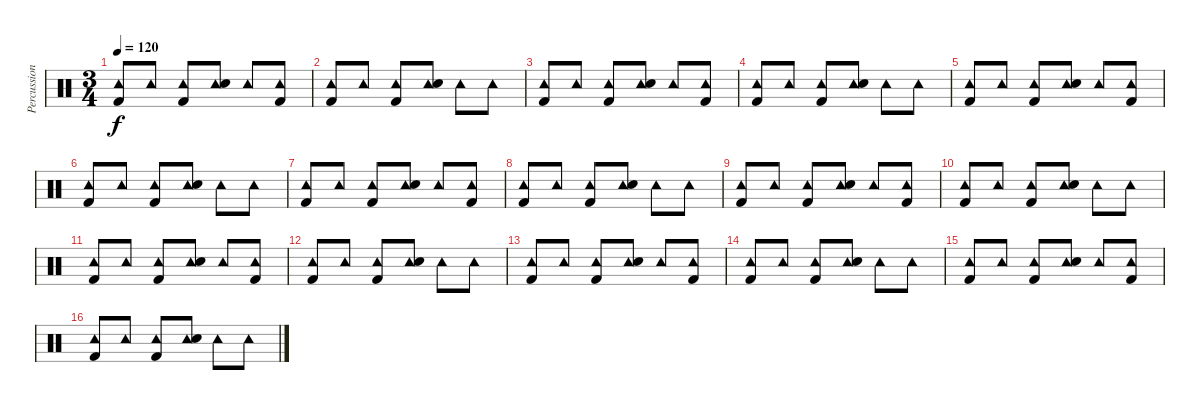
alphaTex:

\track ("Percussions" "Percussion") {instrument percussion}
\staff {score}
\articulation defaults
\ts (3 4)
\tempo 120
\clef neutral
\ks c
("Tambourine (hit)" "Kick (hit) 2").8{dy f} "Tambourine (hit)".8 ("Tambourine (hit)" "Kick (hit) 2").8 ("Tambourine (hit)" "Electric Snare (hit)").8 "Tambourine (hit)".8 ("Tambourine (hit)" "Kick (hit) 2").8 |
("Tambourine (hit)" "Kick (hit) 2").8 "Tambourine (hit)".8 ("Tambourine (hit)" "Kick (hit) 2").8 ("Tambourine (hit)" "Electric Snare (hit)").8 "Tambourine (hit)".8 "Tambourine (hit)".8 |
("Tambourine (hit)" "Kick (hit) 2").8 "Tambourine (hit)".8 ("Tambourine (hit)" "Kick (hit) 2").8 ("Tambourine (hit)" "Electric Snare (hit)").8 "Tambourine (hit)".8 ("Tambourine (hit)" "Kick (hit) 2").8 |
("Tambourine (hit)" "Kick (hit) 2").8 "Tambourine (hit)".8 ("Tambourine (hit)" "Kick (hit) 2").8 ("Tambourine (hit)" "Electric Snare (hit)").8 "Tambourine (hit)".8 "Tambourine (hit)".8 |
("Tambourine (hit)" "Kick (hit) 2").8 "Tambourine (hit)".8 ("Tambourine (hit)" "Kick (hit) 2").8 ("Tambourine (hit)" "Electric Snare (hit)").8 "Tambourine (hit)".8 ("Tambourine (hit)" "Kick (hit) 2").8 |
("Tambourine (hit)" "Kick (hit) 2").8 "Tambourine (hit)".8 ("Tambourine (hit)" "Kick (hit) 2").8 ("Tambourine (hit)" "Electric Snare (hit)").8 "Tambourine (hit)".8 "Tambourine (hit)".8 |
("Tambourine (hit)" "Kick (hit) 2").8 "Tambourine (hit)".8 ("Tambourine (hit)" "Kick (hit) 2").8 ("Tambourine (hit)" "Electric Snare (hit)").8 "Tambourine (hit)".8 ("Tambourine (hit)" "Kick (hit) 2").8 |
("Tambourine (hit)" "Kick (hit) 2").8 "Tambourine (hit)".8 ("Tambourine (hit)" "Kick (hit) 2").8 ("Tambourine (hit)" "Electric Snare (hit)").8 "Tambourine (hit)".8 "Tambourine (hit)".8 |
("Tambourine (hit)" "Kick (hit) 2").8 "Tambourine (hit)".8 ("Tambourine (hit)" "Kick (hit) 2").8 ("Tambourine (hit)" "Electric Snare (hit)").8 "Tambourine (hit)".8 ("Tambourine (hit)" "Kick (hit) 2").8 |
("Tambourine (hit)" "Kick (hit) 2").8 "Tambourine (hit)".8 ("Tambourine (hit)" "Kick (hit) 2").8 ("Tambourine (hit)" "Electric Snare (hit)").8 "Tambourine (hit)".8 "Tambourine (hit)".8 |
("Tambourine (hit)" "Kick (hit) 2").8 "Tambourine (hit)".8 ("Tambourine (hit)" "Kick (hit) 2").8 ("Tambourine (hit)" "Electric Snare (hit)").8 "Tambourine (hit)".8 ("Tambourine (hit)" "Kick (hit) 2").8 |
("Tambourine (hit)" "Kick (hit) 2").8 "Tambourine (hit)".8 ("Tambourine (hit)" "Kick (hit) 2").8 ("Tambourine (hit)" "Electric Snare (hit)").8 "Tambourine (hit)".8 "Tambourine (hit)".8 |
("Tambourine (hit)" "Kick (hit) 2").8 "Tambourine (hit)".8 ("Tambourine (hit)" "Kick (hit) 2").8 ("Tambourine (hit)" "Electric Snare (hit)").8 "Tambourine (hit)".8 ("Tambourine (hit)" "Kick (hit) 2").8 |
("Tambourine (hit)" "Kick (hit) 2").8 "Tambourine (hit)".8 ("Tambourine (hit)" "Kick (hit) 2").8 ("Tambourine (hit)" "Electric Snare (hit)").8 "Tambourine (hit)".8 "Tambourine (hit)".8 |
("Tambourine (hit)" "Kick (hit) 2").8 "Tambourine (hit)".8 ("Tambourine (hit)" "Kick (hit) 2").8 ("Tambourine (hit)" "Electric Snare (hit)").8 "Tambourine (hit)".8 ("Tambourine (hit)" "Kick (hit) 2").8 |
("Tambourine (hit)" "Kick (hit) 2").8 "Tambourine (hit)".8 ("Tambourine (hit)" "Kick (hit) 2").8 ("Tambourine (hit)" "Electric Snare (hit)").8 "Tambourine (hit)".8 "Tambourine (hit)".8
